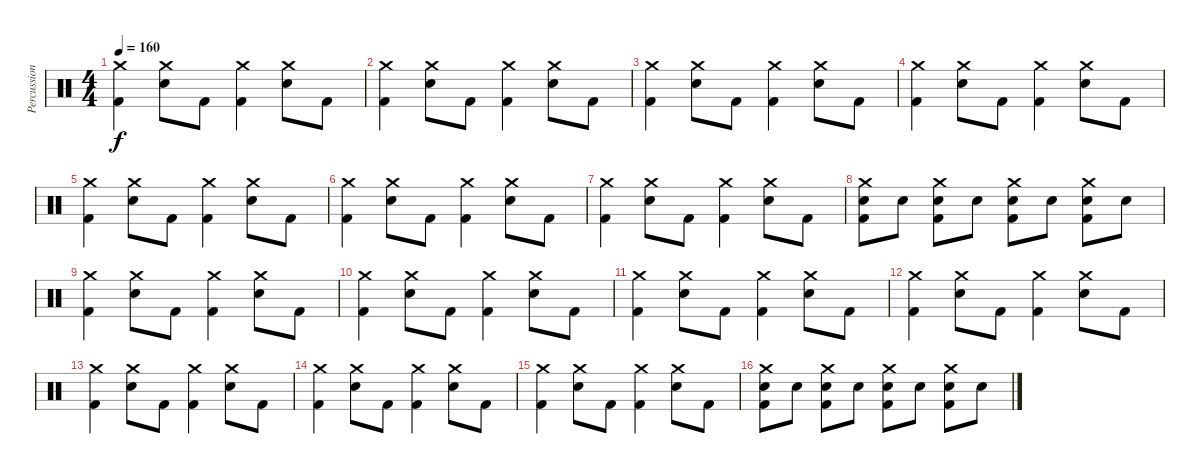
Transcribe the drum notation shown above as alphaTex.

\track ("Percussions" "Percussion") {instrument percussion}
\staff {score}
\articulation defaults
\ts (4 4)
\tempo 160
\clef neutral
\ks c
("Crash medium (hit)" "Kick (hit) 2").4{dy f} ("Crash medium (hit)" "Snare (hit) 2").8 "Kick (hit) 2".8 ("Crash medium (hit)" "Kick (hit) 2").4 ("Crash medium (hit)" "Snare (hit) 2").8 "Kick (hit) 2".8 |
("Crash medium (hit)" "Kick (hit) 2").4 ("Crash medium (hit)" "Snare (hit) 2").8 "Kick (hit) 2".8 ("Crash medium (hit)" "Kick (hit) 2").4 ("Crash medium (hit)" "Snare (hit) 2").8 "Kick (hit) 2".8 |
("Crash medium (hit)" "Kick (hit) 2").4 ("Crash medium (hit)" "Snare (hit) 2").8 "Kick (hit) 2".8 ("Crash medium (hit)" "Kick (hit) 2").4 ("Crash medium (hit)" "Snare (hit) 2").8 "Kick (hit) 2".8 |
("Crash medium (hit)" "Kick (hit) 2").4 ("Crash medium (hit)" "Snare (hit) 2").8 "Kick (hit) 2".8 ("Crash medium (hit)" "Kick (hit) 2").4 ("Crash medium (hit)" "Snare (hit) 2").8 "Kick (hit) 2".8 |
("Crash medium (hit)" "Kick (hit) 2").4 ("Crash medium (hit)" "Snare (hit) 2").8 "Kick (hit) 2".8 ("Crash medium (hit)" "Kick (hit) 2").4 ("Crash medium (hit)" "Snare (hit) 2").8 "Kick (hit) 2".8 |
("Crash medium (hit)" "Kick (hit) 2").4 ("Crash medium (hit)" "Snare (hit) 2").8 "Kick (hit) 2".8 ("Crash medium (hit)" "Kick (hit) 2").4 ("Crash medium (hit)" "Snare (hit) 2").8 "Kick (hit) 2".8 |
("Crash medium (hit)" "Kick (hit) 2").4 ("Crash medium (hit)" "Snare (hit) 2").8 "Kick (hit) 2".8 ("Crash medium (hit)" "Kick (hit) 2").4 ("Crash medium (hit)" "Snare (hit) 2").8 "Kick (hit) 2".8 |
("Crash medium (hit)" "Snare (hit) 2" "Kick (hit) 2").8 "Snare (hit) 2".8 ("Crash medium (hit)" "Snare (hit) 2" "Kick (hit) 2").8 "Snare (hit) 2".8 ("Crash medium (hit)" "Snare (hit) 2" "Kick (hit) 2").8 "Snare (hit) 2".8 ("Crash medium (hit)" "Snare (hit) 2" "Kick (hit) 2").8 "Snare (hit) 2".8 |
("Crash medium (hit)" "Kick (hit) 2").4 ("Crash medium (hit)" "Snare (hit) 2").8 "Kick (hit) 2".8 ("Crash medium (hit)" "Kick (hit) 2").4 ("Crash medium (hit)" "Snare (hit) 2").8 "Kick (hit) 2".8 |
("Crash medium (hit)" "Kick (hit) 2").4 ("Crash medium (hit)" "Snare (hit) 2").8 "Kick (hit) 2".8 ("Crash medium (hit)" "Kick (hit) 2").4 ("Crash medium (hit)" "Snare (hit) 2").8 "Kick (hit) 2".8 |
("Crash medium (hit)" "Kick (hit) 2").4 ("Crash medium (hit)" "Snare (hit) 2").8 "Kick (hit) 2".8 ("Crash medium (hit)" "Kick (hit) 2").4 ("Crash medium (hit)" "Snare (hit) 2").8 "Kick (hit) 2".8 |
("Crash medium (hit)" "Kick (hit) 2").4 ("Crash medium (hit)" "Snare (hit) 2").8 "Kick (hit) 2".8 ("Crash medium (hit)" "Kick (hit) 2").4 ("Crash medium (hit)" "Snare (hit) 2").8 "Kick (hit) 2".8 |
("Crash medium (hit)" "Kick (hit) 2").4 ("Crash medium (hit)" "Snare (hit) 2").8 "Kick (hit) 2".8 ("Crash medium (hit)" "Kick (hit) 2").4 ("Crash medium (hit)" "Snare (hit) 2").8 "Kick (hit) 2".8 |
("Crash medium (hit)" "Kick (hit) 2").4 ("Crash medium (hit)" "Snare (hit) 2").8 "Kick (hit) 2".8 ("Crash medium (hit)" "Kick (hit) 2").4 ("Crash medium (hit)" "Snare (hit) 2").8 "Kick (hit) 2".8 |
("Crash medium (hit)" "Kick (hit) 2").4 ("Crash medium (hit)" "Snare (hit) 2").8 "Kick (hit) 2".8 ("Crash medium (hit)" "Kick (hit) 2").4 ("Crash medium (hit)" "Snare (hit) 2").8 "Kick (hit) 2".8 |
("Crash medium (hit)" "Snare (hit) 2" "Kick (hit) 2").8 "Snare (hit) 2".8 ("Crash medium (hit)" "Snare (hit) 2" "Kick (hit) 2").8 "Snare (hit) 2".8 ("Crash medium (hit)" "Snare (hit) 2" "Kick (hit) 2").8 "Snare (hit) 2".8 ("Crash medium (hit)" "Snare (hit) 2" "Kick (hit) 2").8 "Snare (hit) 2".8
